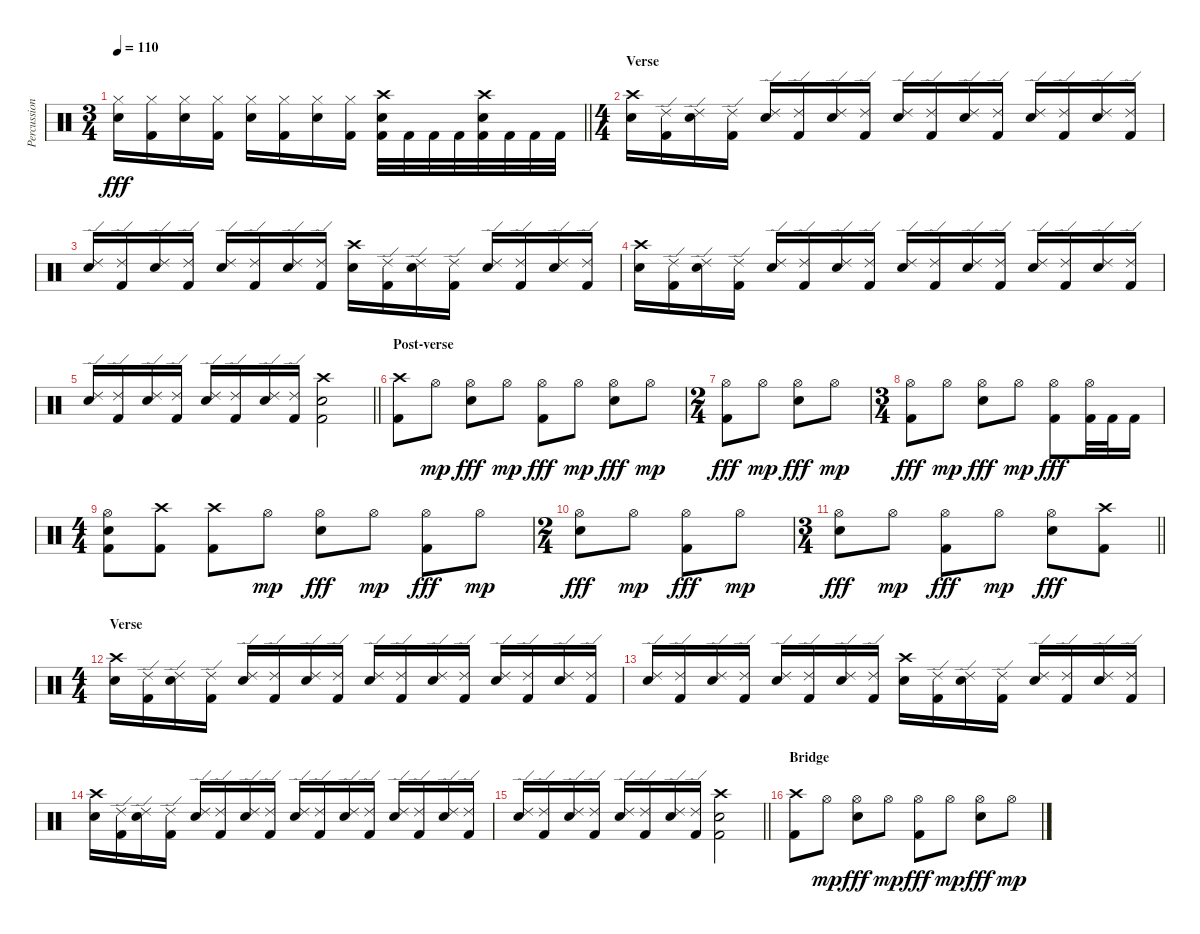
\track ("Percussion" "Percussion") {instrument percussion}
\staff {score}
\articulation defaults
\ts (3 4)
\tempo 110
\clef neutral
\barLineRight lightlight
\ks c
("Hi-Hat (closed)" "Snare (hit) 2").16{dy fff} ("Hi-Hat (closed)" "Kick (hit) 2").16 ("Hi-Hat (closed)" "Snare (hit) 2").16 ("Hi-Hat (closed)" "Kick (hit) 2").16 ("Hi-Hat (closed)" "Snare (hit) 2").16 ("Hi-Hat (closed)" "Kick (hit) 2").16 ("Hi-Hat (closed)" "Snare (hit) 2").16 ("Hi-Hat (closed)" "Kick (hit) 2").16 ("Crash high (hit)" "Snare (hit) 2" "Kick (hit) 2").32 "Kick (hit) 2".32 "Kick (hit) 2".32 "Kick (hit) 2".32 ("Crash high (hit)" "Snare (hit) 2" "Kick (hit) 2").32 "Kick (hit) 2".32 "Kick (hit) 2".32 "Kick (hit) 2".32 |
\ts (4 4)
\section ("" "Verse")
("Crash high (hit)" "Snare (hit) 2").16 ("Ride (edge) 2" "Kick (hit) 2").16 ("Ride (edge) 2" "Snare (hit) 2").16 ("Ride (edge) 2" "Kick (hit) 2").16 ("Ride (edge) 2" "Snare (hit) 2").16 ("Ride (edge) 2" "Kick (hit) 2").16 ("Ride (edge) 2" "Snare (hit) 2").16 ("Ride (edge) 2" "Kick (hit) 2").16 ("Ride (edge) 2" "Snare (hit) 2").16 ("Ride (edge) 2" "Kick (hit) 2").16 ("Ride (edge) 2" "Snare (hit) 2").16 ("Ride (edge) 2" "Kick (hit) 2").16 ("Ride (edge) 2" "Snare (hit) 2").16 ("Ride (edge) 2" "Kick (hit) 2").16 ("Ride (edge) 2" "Snare (hit) 2").16 ("Ride (edge) 2" "Kick (hit) 2").16 |
("Ride (edge) 2" "Snare (hit) 2").16 ("Ride (edge) 2" "Kick (hit) 2").16 ("Ride (edge) 2" "Snare (hit) 2").16 ("Ride (edge) 2" "Kick (hit) 2").16 ("Ride (edge) 2" "Snare (hit) 2").16 ("Ride (edge) 2" "Kick (hit) 2").16 ("Ride (edge) 2" "Snare (hit) 2").16 ("Ride (edge) 2" "Kick (hit) 2").16 ("Crash high (hit)" "Snare (hit) 2").16 ("Ride (edge) 2" "Kick (hit) 2").16 ("Ride (edge) 2" "Snare (hit) 2").16 ("Ride (edge) 2" "Kick (hit) 2").16 ("Ride (edge) 2" "Snare (hit) 2").16 ("Ride (edge) 2" "Kick (hit) 2").16 ("Ride (edge) 2" "Snare (hit) 2").16 ("Ride (edge) 2" "Kick (hit) 2").16 |
("Crash high (hit)" "Snare (hit) 2").16 ("Ride (edge) 2" "Kick (hit) 2").16 ("Ride (edge) 2" "Snare (hit) 2").16 ("Ride (edge) 2" "Kick (hit) 2").16 ("Ride (edge) 2" "Snare (hit) 2").16 ("Ride (edge) 2" "Kick (hit) 2").16 ("Ride (edge) 2" "Snare (hit) 2").16 ("Ride (edge) 2" "Kick (hit) 2").16 ("Ride (edge) 2" "Snare (hit) 2").16 ("Ride (edge) 2" "Kick (hit) 2").16 ("Ride (edge) 2" "Snare (hit) 2").16 ("Ride (edge) 2" "Kick (hit) 2").16 ("Ride (edge) 2" "Snare (hit) 2").16 ("Ride (edge) 2" "Kick (hit) 2").16 ("Ride (edge) 2" "Snare (hit) 2").16 ("Ride (edge) 2" "Kick (hit) 2").16 |
\barLineRight lightlight
("Ride (edge) 2" "Snare (hit) 2").16 ("Ride (edge) 2" "Kick (hit) 2").16 ("Ride (edge) 2" "Snare (hit) 2").16 ("Ride (edge) 2" "Kick (hit) 2").16 ("Ride (edge) 2" "Snare (hit) 2").16 ("Ride (edge) 2" "Kick (hit) 2").16 ("Ride (edge) 2" "Snare (hit) 2").16 ("Ride (edge) 2" "Kick (hit) 2").16 ("Crash high (hit)" "Snare (hit) 2" "Kick (hit) 2").2 |
\section ("" "Post-verse")
("Crash high (hit)" "Kick (hit) 2").8 "Hi-Hat (open)".8{dy mp} ("Hi-Hat (open)" "Snare (hit) 2").8{dy fff} "Hi-Hat (open)".8{dy mp} ("Hi-Hat (open)" "Kick (hit) 2").8{dy fff} "Hi-Hat (open)".8{dy mp} ("Hi-Hat (open)" "Snare (hit) 2").8{dy fff} "Hi-Hat (open)".8{dy mp} |
\ts (2 4)
("Hi-Hat (open)" "Kick (hit) 2").8{dy fff} "Hi-Hat (open)".8{dy mp} ("Hi-Hat (open)" "Snare (hit) 2").8{dy fff} "Hi-Hat (open)".8{dy mp} |
\ts (3 4)
("Hi-Hat (open)" "Kick (hit) 2").8{dy fff} "Hi-Hat (open)".8{dy mp} ("Hi-Hat (open)" "Snare (hit) 2").8{dy fff} "Hi-Hat (open)".8{dy mp} ("Hi-Hat (open)" "Kick (hit) 2").8{dy fff} ("Hi-Hat (open)" "Kick (hit) 2").32 "Kick (hit) 2".32 "Kick (hit) 2".16 |
\ts (4 4)
("Hi-Hat (open)" "Snare (hit) 2" "Kick (hit) 2").8 ("Crash high (hit)" "Kick (hit) 2").8 ("Crash high (hit)" "Kick (hit) 2").8 "Hi-Hat (open)".8{dy mp} ("Hi-Hat (open)" "Snare (hit) 2").8{dy fff} "Hi-Hat (open)".8{dy mp} ("Hi-Hat (open)" "Kick (hit) 2").8{dy fff} "Hi-Hat (open)".8{dy mp} |
\ts (2 4)
("Hi-Hat (open)" "Snare (hit) 2").8{dy fff} "Hi-Hat (open)".8{dy mp} ("Hi-Hat (open)" "Kick (hit) 2").8{dy fff} "Hi-Hat (open)".8{dy mp} |
\ts (3 4)
\barLineRight lightlight
("Hi-Hat (open)" "Snare (hit) 2").8{dy fff} "Hi-Hat (open)".8{dy mp} ("Hi-Hat (open)" "Kick (hit) 2").8{dy fff} "Hi-Hat (open)".8{dy mp} ("Hi-Hat (open)" "Snare (hit) 2").8{dy fff} ("Crash high (hit)" "Kick (hit) 2").8 |
\ts (4 4)
\section ("" "Verse")
("Crash high (hit)" "Snare (hit) 2").16 ("Ride (edge) 2" "Kick (hit) 2").16 ("Ride (edge) 2" "Snare (hit) 2").16 ("Ride (edge) 2" "Kick (hit) 2").16 ("Ride (edge) 2" "Snare (hit) 2").16 ("Ride (edge) 2" "Kick (hit) 2").16 ("Ride (edge) 2" "Snare (hit) 2").16 ("Ride (edge) 2" "Kick (hit) 2").16 ("Ride (edge) 2" "Snare (hit) 2").16 ("Ride (edge) 2" "Kick (hit) 2").16 ("Ride (edge) 2" "Snare (hit) 2").16 ("Ride (edge) 2" "Kick (hit) 2").16 ("Ride (edge) 2" "Snare (hit) 2").16 ("Ride (edge) 2" "Kick (hit) 2").16 ("Ride (edge) 2" "Snare (hit) 2").16 ("Ride (edge) 2" "Kick (hit) 2").16 |
("Ride (edge) 2" "Snare (hit) 2").16 ("Ride (edge) 2" "Kick (hit) 2").16 ("Ride (edge) 2" "Snare (hit) 2").16 ("Ride (edge) 2" "Kick (hit) 2").16 ("Ride (edge) 2" "Snare (hit) 2").16 ("Ride (edge) 2" "Kick (hit) 2").16 ("Ride (edge) 2" "Snare (hit) 2").16 ("Ride (edge) 2" "Kick (hit) 2").16 ("Crash high (hit)" "Snare (hit) 2").16 ("Ride (edge) 2" "Kick (hit) 2").16 ("Ride (edge) 2" "Snare (hit) 2").16 ("Ride (edge) 2" "Kick (hit) 2").16 ("Ride (edge) 2" "Snare (hit) 2").16 ("Ride (edge) 2" "Kick (hit) 2").16 ("Ride (edge) 2" "Snare (hit) 2").16 ("Ride (edge) 2" "Kick (hit) 2").16 |
("Crash high (hit)" "Snare (hit) 2").16 ("Ride (edge) 2" "Kick (hit) 2").16 ("Ride (edge) 2" "Snare (hit) 2").16 ("Ride (edge) 2" "Kick (hit) 2").16 ("Ride (edge) 2" "Snare (hit) 2").16 ("Ride (edge) 2" "Kick (hit) 2").16 ("Ride (edge) 2" "Snare (hit) 2").16 ("Ride (edge) 2" "Kick (hit) 2").16 ("Ride (edge) 2" "Snare (hit) 2").16 ("Ride (edge) 2" "Kick (hit) 2").16 ("Ride (edge) 2" "Snare (hit) 2").16 ("Ride (edge) 2" "Kick (hit) 2").16 ("Ride (edge) 2" "Snare (hit) 2").16 ("Ride (edge) 2" "Kick (hit) 2").16 ("Ride (edge) 2" "Snare (hit) 2").16 ("Ride (edge) 2" "Kick (hit) 2").16 |
\barLineRight lightlight
("Ride (edge) 2" "Snare (hit) 2").16 ("Ride (edge) 2" "Kick (hit) 2").16 ("Ride (edge) 2" "Snare (hit) 2").16 ("Ride (edge) 2" "Kick (hit) 2").16 ("Ride (edge) 2" "Snare (hit) 2").16 ("Ride (edge) 2" "Kick (hit) 2").16 ("Ride (edge) 2" "Snare (hit) 2").16 ("Ride (edge) 2" "Kick (hit) 2").16 ("Crash high (hit)" "Snare (hit) 2" "Kick (hit) 2").2 |
\section ("" "Bridge")
("Crash high (hit)" "Kick (hit) 2").8 "Hi-Hat (open)".8{dy mp} ("Hi-Hat (open)" "Snare (hit) 2").8{dy fff} "Hi-Hat (open)".8{dy mp} ("Hi-Hat (open)" "Kick (hit) 2").8{dy fff} "Hi-Hat (open)".8{dy mp} ("Hi-Hat (open)" "Snare (hit) 2").8{dy fff} "Hi-Hat (open)".8{dy mp}
